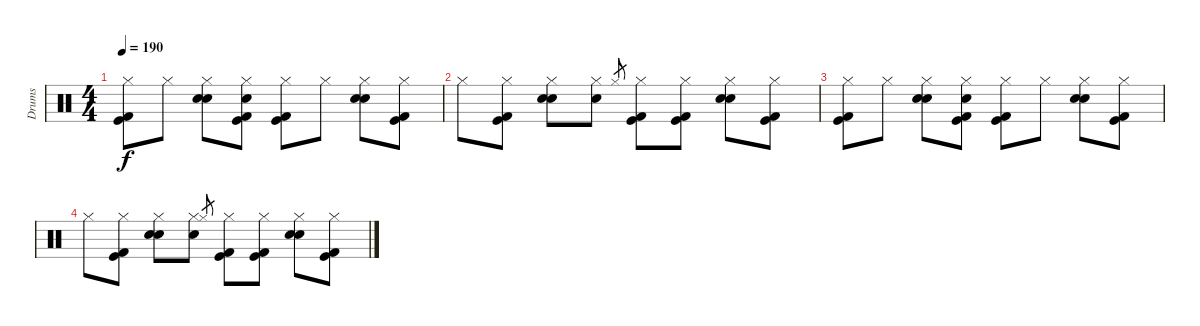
\track ("Drums" "Drums") {instrument percussion}
\staff {score}
\articulation defaults
\ts (4 4)
\tempo 190
\clef neutral
\ks c
("Hi-Hat (closed)" "Kick (hit)" "Kick (hit) 2").8{dy f} "Hi-Hat (closed)".8 ("Hand Clap (hit)" "Hi-Hat (closed)" "Snare (hit) 2").8 ("Hand Clap (hit)" "Hi-Hat (closed)" "Kick (hit)" "Kick (hit) 2").8 ("Hi-Hat (closed)" "Kick (hit)" "Kick (hit) 2").8 "Hi-Hat (closed)".8 ("Hand Clap (hit)" "Hi-Hat (closed)" "Snare (hit) 2").8 ("Hi-Hat (closed)" "Kick (hit)" "Kick (hit) 2").8 |
"Hi-Hat (closed)".8 ("Hi-Hat (closed)" "Kick (hit)" "Kick (hit) 2").8 ("Hand Clap (hit)" "Hi-Hat (closed)" "Snare (hit) 2").8 ("Hand Clap (hit)" "Hi-Hat (closed)").8 "Hi-Hat (closed)".8{gr} ("Hi-Hat (closed)" "Kick (hit)" "Kick (hit) 2").8 ("Hi-Hat (closed)" "Kick (hit)" "Kick (hit) 2").8 ("Hand Clap (hit)" "Hi-Hat (closed)" "Snare (hit) 2").8 ("Hi-Hat (closed)" "Kick (hit)" "Kick (hit) 2").8 |
("Hi-Hat (closed)" "Kick (hit)" "Kick (hit) 2").8 "Hi-Hat (closed)".8 ("Hand Clap (hit)" "Hi-Hat (closed)" "Snare (hit) 2").8 ("Hand Clap (hit)" "Hi-Hat (closed)" "Kick (hit)" "Kick (hit) 2").8 ("Hi-Hat (closed)" "Kick (hit)" "Kick (hit) 2").8 "Hi-Hat (closed)".8 ("Hand Clap (hit)" "Hi-Hat (closed)" "Snare (hit) 2").8 ("Hi-Hat (closed)" "Kick (hit)" "Kick (hit) 2").8 |
"Hi-Hat (closed)".8 ("Hi-Hat (closed)" "Kick (hit)" "Kick (hit) 2").8 ("Hand Clap (hit)" "Hi-Hat (closed)" "Snare (hit) 2").8 ("Hand Clap (hit)" "Hi-Hat (closed)").8 "Hi-Hat (closed)".8{gr} ("Hi-Hat (closed)" "Kick (hit)" "Kick (hit) 2").8 ("Hi-Hat (closed)" "Kick (hit)" "Kick (hit) 2").8 ("Hand Clap (hit)" "Hi-Hat (closed)" "Snare (hit) 2").8 ("Hi-Hat (closed)" "Kick (hit)" "Kick (hit) 2").8
